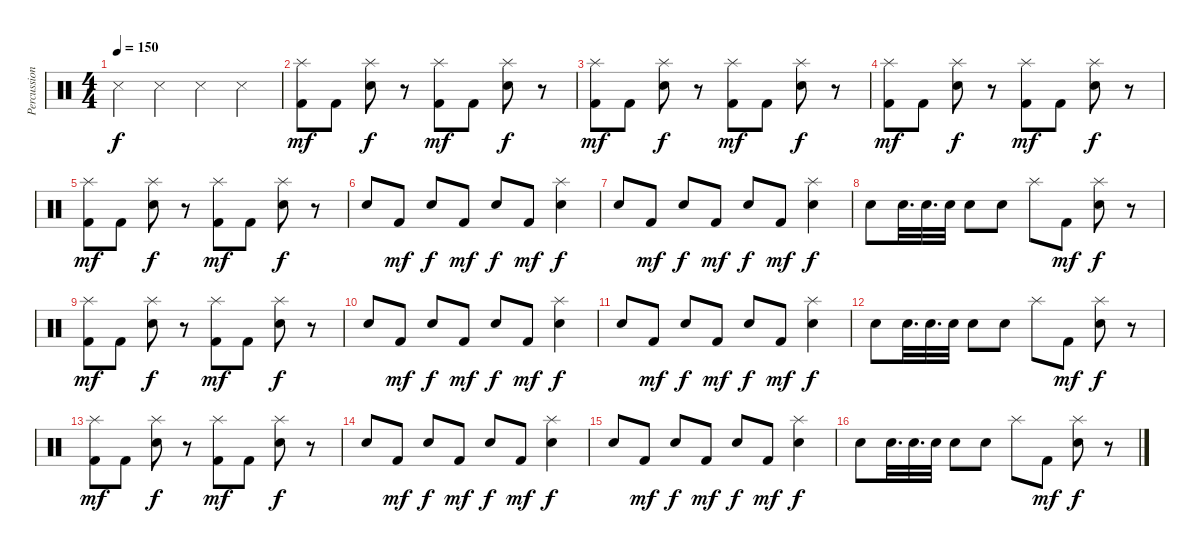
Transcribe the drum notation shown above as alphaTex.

\track ("Percussion" "Percussion") {instrument percussion}
\staff {score}
\articulation defaults
\ts (4 4)
\tempo 150
\clef neutral
\ks c "Snare (side stick) 3".4{dy f} "Snare (side stick) 3".4 "Snare (side stick) 3".4 "Snare (side stick) 3".4
|
("Splash (hit)" "Kick (hit) 2").8{dy mf} "Kick (hit) 2".8 ("Splash (hit)" "Snare (hit) 2").8{dy f} r.8 ("Splash (hit)" "Kick (hit) 2").8{dy mf} "Kick (hit) 2".8 ("Splash (hit)" "Snare (hit) 2").8{dy f} r.8 |
("Splash (hit)" "Kick (hit) 2").8{dy mf} "Kick (hit) 2".8 ("Splash (hit)" "Snare (hit) 2").8{dy f} r.8 ("Splash (hit)" "Kick (hit) 2").8{dy mf} "Kick (hit) 2".8 ("Splash (hit)" "Snare (hit) 2").8{dy f} r.8 |
("Splash (hit)" "Kick (hit) 2").8{dy mf} "Kick (hit) 2".8 ("Splash (hit)" "Snare (hit) 2").8{dy f} r.8 ("Splash (hit)" "Kick (hit) 2").8{dy mf} "Kick (hit) 2".8 ("Splash (hit)" "Snare (hit) 2").8{dy f} r.8 |
("Splash (hit)" "Kick (hit) 2").8{dy mf} "Kick (hit) 2".8 ("Splash (hit)" "Snare (hit) 2").8{dy f} r.8 ("Splash (hit)" "Kick (hit) 2").8{dy mf} "Kick (hit) 2".8 ("Splash (hit)" "Snare (hit) 2").8{dy f} r.8 |
"Snare (hit) 2".8 "Kick (hit) 2".8{dy mf} "Snare (hit) 2".8{dy f} "Kick (hit) 2".8{dy mf} "Snare (hit) 2".8{dy f} "Kick (hit) 2".8{dy mf} ("Splash (hit)" "Snare (hit) 2").4{dy f} |
"Snare (hit) 2".8 "Kick (hit) 2".8{dy mf} "Snare (hit) 2".8{dy f} "Kick (hit) 2".8{dy mf} "Snare (hit) 2".8{dy f} "Kick (hit) 2".8{dy mf} ("Splash (hit)" "Snare (hit) 2").4{dy f} |
"Snare (hit) 2".8 "Snare (hit) 2".32{d} "Snare (hit) 2".32{d} "Snare (hit) 2".32 "Snare (hit) 2".8 "Snare (hit) 2".8 "Splash (hit)".8 "Kick (hit) 2".8{dy mf} ("Splash (hit)" "Snare (hit) 2").8{dy f} r.8 |
("Splash (hit)" "Kick (hit) 2").8{dy mf} "Kick (hit) 2".8 ("Splash (hit)" "Snare (hit) 2").8{dy f} r.8 ("Splash (hit)" "Kick (hit) 2").8{dy mf} "Kick (hit) 2".8 ("Splash (hit)" "Snare (hit) 2").8{dy f} r.8 |
"Snare (hit) 2".8 "Kick (hit) 2".8{dy mf} "Snare (hit) 2".8{dy f} "Kick (hit) 2".8{dy mf} "Snare (hit) 2".8{dy f} "Kick (hit) 2".8{dy mf} ("Splash (hit)" "Snare (hit) 2").4{dy f} |
"Snare (hit) 2".8 "Kick (hit) 2".8{dy mf} "Snare (hit) 2".8{dy f} "Kick (hit) 2".8{dy mf} "Snare (hit) 2".8{dy f} "Kick (hit) 2".8{dy mf} ("Splash (hit)" "Snare (hit) 2").4{dy f} |
"Snare (hit) 2".8 "Snare (hit) 2".32{d} "Snare (hit) 2".32{d} "Snare (hit) 2".32 "Snare (hit) 2".8 "Snare (hit) 2".8 "Splash (hit)".8 "Kick (hit) 2".8{dy mf} ("Splash (hit)" "Snare (hit) 2").8{dy f} r.8 |
("Splash (hit)" "Kick (hit) 2").8{dy mf} "Kick (hit) 2".8 ("Splash (hit)" "Snare (hit) 2").8{dy f} r.8 ("Splash (hit)" "Kick (hit) 2").8{dy mf} "Kick (hit) 2".8 ("Splash (hit)" "Snare (hit) 2").8{dy f} r.8 |
"Snare (hit) 2".8 "Kick (hit) 2".8{dy mf} "Snare (hit) 2".8{dy f} "Kick (hit) 2".8{dy mf} "Snare (hit) 2".8{dy f} "Kick (hit) 2".8{dy mf} ("Splash (hit)" "Snare (hit) 2").4{dy f} |
"Snare (hit) 2".8 "Kick (hit) 2".8{dy mf} "Snare (hit) 2".8{dy f} "Kick (hit) 2".8{dy mf} "Snare (hit) 2".8{dy f} "Kick (hit) 2".8{dy mf} ("Splash (hit)" "Snare (hit) 2").4{dy f} |
"Snare (hit) 2".8 "Snare (hit) 2".32{d} "Snare (hit) 2".32{d} "Snare (hit) 2".32 "Snare (hit) 2".8 "Snare (hit) 2".8 "Splash (hit)".8 "Kick (hit) 2".8{dy mf} ("Splash (hit)" "Snare (hit) 2").8{dy f} r.8
